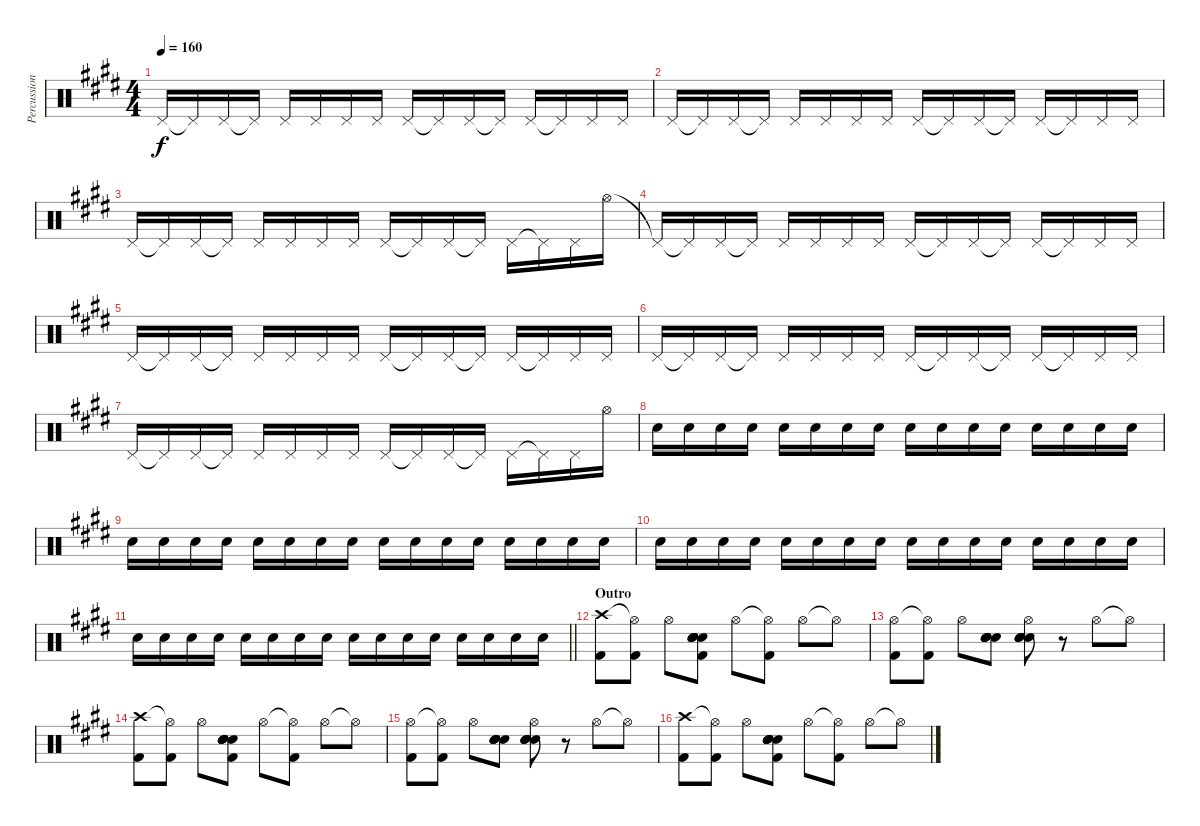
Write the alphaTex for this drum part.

\track ("Percussion" "Percussion") {instrument percussion}
\staff {score}
\articulation defaults
\ts (4 4)
\tempo 160
\clef neutral
\ks c#minor "Pedal Hi-Hat (hit)".16{dy f} "Pedal Hi-Hat (hit)"{t}.16 "Pedal Hi-Hat (hit)".16 "Pedal Hi-Hat (hit)"{t}.16 "Pedal Hi-Hat (hit)".16 "Pedal Hi-Hat (hit)".16 "Pedal Hi-Hat (hit)".16 "Pedal Hi-Hat (hit)".16 "Pedal Hi-Hat (hit)".16 "Pedal Hi-Hat (hit)"{t}.16 "Pedal Hi-Hat (hit)".16 "Pedal Hi-Hat (hit)"{t}.16 "Pedal Hi-Hat (hit)".16 "Pedal Hi-Hat (hit)"{t}.16 "Pedal Hi-Hat (hit)".16 "Pedal Hi-Hat (hit)".16
|
"Pedal Hi-Hat (hit)".16 "Pedal Hi-Hat (hit)"{t}.16 "Pedal Hi-Hat (hit)".16 "Pedal Hi-Hat (hit)"{t}.16 "Pedal Hi-Hat (hit)".16 "Pedal Hi-Hat (hit)".16 "Pedal Hi-Hat (hit)".16 "Pedal Hi-Hat (hit)".16 "Pedal Hi-Hat (hit)".16 "Pedal Hi-Hat (hit)"{t}.16 "Pedal Hi-Hat (hit)".16 "Pedal Hi-Hat (hit)"{t}.16 "Pedal Hi-Hat (hit)".16 "Pedal Hi-Hat (hit)"{t}.16 "Pedal Hi-Hat (hit)".16 "Pedal Hi-Hat (hit)".16 |
"Pedal Hi-Hat (hit)".16 "Pedal Hi-Hat (hit)"{t}.16 "Pedal Hi-Hat (hit)".16 "Pedal Hi-Hat (hit)"{t}.16 "Pedal Hi-Hat (hit)".16 "Pedal Hi-Hat (hit)".16 "Pedal Hi-Hat (hit)".16 "Pedal Hi-Hat (hit)".16 "Pedal Hi-Hat (hit)".16 "Pedal Hi-Hat (hit)"{t}.16 "Pedal Hi-Hat (hit)".16 "Pedal Hi-Hat (hit)"{t}.16 "Pedal Hi-Hat (hit)".16 "Pedal Hi-Hat (hit)"{t}.16 "Pedal Hi-Hat (hit)".16 "Hi-Hat (open)".16 |
"Pedal Hi-Hat (hit)"{t}.16 "Pedal Hi-Hat (hit)"{t}.16 "Pedal Hi-Hat (hit)".16 "Pedal Hi-Hat (hit)"{t}.16 "Pedal Hi-Hat (hit)".16 "Pedal Hi-Hat (hit)".16 "Pedal Hi-Hat (hit)".16 "Pedal Hi-Hat (hit)".16 "Pedal Hi-Hat (hit)".16 "Pedal Hi-Hat (hit)"{t}.16 "Pedal Hi-Hat (hit)".16 "Pedal Hi-Hat (hit)"{t}.16 "Pedal Hi-Hat (hit)".16 "Pedal Hi-Hat (hit)"{t}.16 "Pedal Hi-Hat (hit)".16 "Pedal Hi-Hat (hit)".16 |
"Pedal Hi-Hat (hit)".16 "Pedal Hi-Hat (hit)"{t}.16 "Pedal Hi-Hat (hit)".16 "Pedal Hi-Hat (hit)"{t}.16 "Pedal Hi-Hat (hit)".16 "Pedal Hi-Hat (hit)".16 "Pedal Hi-Hat (hit)".16 "Pedal Hi-Hat (hit)".16 "Pedal Hi-Hat (hit)".16 "Pedal Hi-Hat (hit)"{t}.16 "Pedal Hi-Hat (hit)".16 "Pedal Hi-Hat (hit)"{t}.16 "Pedal Hi-Hat (hit)".16 "Pedal Hi-Hat (hit)"{t}.16 "Pedal Hi-Hat (hit)".16 "Pedal Hi-Hat (hit)".16 |
"Pedal Hi-Hat (hit)".16 "Pedal Hi-Hat (hit)"{t}.16 "Pedal Hi-Hat (hit)".16 "Pedal Hi-Hat (hit)"{t}.16 "Pedal Hi-Hat (hit)".16 "Pedal Hi-Hat (hit)".16 "Pedal Hi-Hat (hit)".16 "Pedal Hi-Hat (hit)".16 "Pedal Hi-Hat (hit)".16 "Pedal Hi-Hat (hit)"{t}.16 "Pedal Hi-Hat (hit)".16 "Pedal Hi-Hat (hit)"{t}.16 "Pedal Hi-Hat (hit)".16 "Pedal Hi-Hat (hit)"{t}.16 "Pedal Hi-Hat (hit)".16 "Pedal Hi-Hat (hit)".16 |
"Pedal Hi-Hat (hit)".16 "Pedal Hi-Hat (hit)"{t}.16 "Pedal Hi-Hat (hit)".16 "Pedal Hi-Hat (hit)"{t}.16 "Pedal Hi-Hat (hit)".16 "Pedal Hi-Hat (hit)".16 "Pedal Hi-Hat (hit)".16 "Pedal Hi-Hat (hit)".16 "Pedal Hi-Hat (hit)".16 "Pedal Hi-Hat (hit)"{t}.16 "Pedal Hi-Hat (hit)".16 "Pedal Hi-Hat (hit)"{t}.16 "Pedal Hi-Hat (hit)".16 "Pedal Hi-Hat (hit)"{t}.16 "Pedal Hi-Hat (hit)".16 "Hi-Hat (open)".16 |
"Electric Snare (hit)".16{volume 4} "Electric Snare (hit)".16{volume 16} "Electric Snare (hit)".16 "Electric Snare (hit)".16 "Electric Snare (hit)".16 "Electric Snare (hit)".16 "Electric Snare (hit)".16 "Electric Snare (hit)".16 "Electric Snare (hit)".16 "Electric Snare (hit)".16 "Electric Snare (hit)".16 "Electric Snare (hit)".16 "Electric Snare (hit)".16 "Electric Snare (hit)".16 "Electric Snare (hit)".16 "Electric Snare (hit)".16 |
"Electric Snare (hit)".16 "Electric Snare (hit)".16 "Electric Snare (hit)".16 "Electric Snare (hit)".16 "Electric Snare (hit)".16 "Electric Snare (hit)".16 "Electric Snare (hit)".16 "Electric Snare (hit)".16 "Electric Snare (hit)".16 "Electric Snare (hit)".16 "Electric Snare (hit)".16 "Electric Snare (hit)".16 "Electric Snare (hit)".16 "Electric Snare (hit)".16 "Electric Snare (hit)".16 "Electric Snare (hit)".16 |
"Electric Snare (hit)".16 "Electric Snare (hit)".16 "Electric Snare (hit)".16 "Electric Snare (hit)".16 "Electric Snare (hit)".16 "Electric Snare (hit)".16 "Electric Snare (hit)".16 "Electric Snare (hit)".16 "Electric Snare (hit)".16 "Electric Snare (hit)".16 "Electric Snare (hit)".16 "Electric Snare (hit)".16 "Electric Snare (hit)".16 "Electric Snare (hit)".16 "Electric Snare (hit)".16 "Electric Snare (hit)".16 |
\barLineRight lightlight "Electric Snare (hit)".16 "Electric Snare (hit)".16 "Electric Snare (hit)".16 "Electric Snare (hit)".16 "Electric Snare (hit)".16 "Electric Snare (hit)".16 "Electric Snare (hit)".16 "Electric Snare (hit)".16 "Electric Snare (hit)".16 "Electric Snare (hit)".16 "Electric Snare (hit)".16 "Electric Snare (hit)".16 "Electric Snare (hit)".16 "Electric Snare (hit)".16 "Electric Snare (hit)".16 "Electric Snare (hit)".16
|
\section ("" "Outro")
("Crash high (hit)" "Kick (hit) 2").8 ("Hi-Hat (open)"{t} "Kick (hit) 2").8 "Hi-Hat (open)".8 ("Electric Snare (hit)" "Electric Snare (hit)" "Electric Snare (hit)" "Electric Snare (hit)" "Electric Snare (hit)" "Kick (hit) 2").8 "Hi-Hat (open)".8 ("Hi-Hat (open)"{t} "Kick (hit) 2").8 "Hi-Hat (open)".8 "Hi-Hat (open)"{t}.8 |
("Hi-Hat (open)" "Kick (hit) 2").8 ("Hi-Hat (open)"{t} "Kick (hit) 2").8 "Hi-Hat (open)".8 ("Electric Snare (hit)" "Electric Snare (hit)" "Electric Snare (hit)" "Electric Snare (hit)" "Electric Snare (hit)").8 ("Electric Snare (hit)" "Electric Snare (hit)" "Hi-Hat (open)" "Electric Snare (hit)" "Electric Snare (hit)").8 r.8 "Hi-Hat (open)".8 "Hi-Hat (open)"{t}.8 |
("Crash high (hit)" "Kick (hit) 2").8 ("Hi-Hat (open)"{t} "Kick (hit) 2").8 "Hi-Hat (open)".8 ("Electric Snare (hit)" "Electric Snare (hit)" "Electric Snare (hit)" "Electric Snare (hit)" "Electric Snare (hit)" "Kick (hit) 2").8 "Hi-Hat (open)".8 ("Hi-Hat (open)"{t} "Kick (hit) 2").8 "Hi-Hat (open)".8 "Hi-Hat (open)"{t}.8 |
("Hi-Hat (open)" "Kick (hit) 2").8 ("Hi-Hat (open)"{t} "Kick (hit) 2").8 "Hi-Hat (open)".8 ("Electric Snare (hit)" "Electric Snare (hit)" "Electric Snare (hit)" "Electric Snare (hit)" "Electric Snare (hit)").8 ("Electric Snare (hit)" "Electric Snare (hit)" "Hi-Hat (open)" "Electric Snare (hit)" "Electric Snare (hit)").8 r.8 "Hi-Hat (open)".8 "Hi-Hat (open)"{t}.8 |
("Crash high (hit)" "Kick (hit) 2").8 ("Hi-Hat (open)"{t} "Kick (hit) 2").8 "Hi-Hat (open)".8 ("Electric Snare (hit)" "Electric Snare (hit)" "Electric Snare (hit)" "Electric Snare (hit)" "Electric Snare (hit)" "Kick (hit) 2").8 "Hi-Hat (open)".8 ("Hi-Hat (open)"{t} "Kick (hit) 2").8 "Hi-Hat (open)".8 "Hi-Hat (open)"{t}.8
